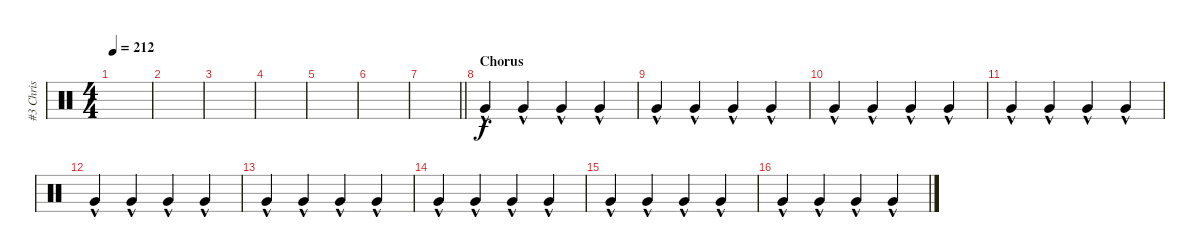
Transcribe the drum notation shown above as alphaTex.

\track ("#3 Chris" "#3 Chris") {instrument percussion}
\staff {score}
\articulation defaults
\ts (4 4)
\tempo 212
\clef neutral
\ks c
|
|
|
|
|
|
\barLineRight lightlight
|
\section ("" "Chorus")
"Very Low Tom (hit)"{hac}.4 "Very Low Tom (hit)"{hac}.4 "Very Low Tom (hit)"{hac}.4 "Very Low Tom (hit)"{hac}.4 |
"Very Low Tom (hit)"{hac}.4 "Very Low Tom (hit)"{hac}.4 "Very Low Tom (hit)"{hac}.4 "Very Low Tom (hit)"{hac}.4 |
"Very Low Tom (hit)"{hac}.4 "Very Low Tom (hit)"{hac}.4 "Very Low Tom (hit)"{hac}.4 "Very Low Tom (hit)"{hac}.4 |
"Very Low Tom (hit)"{hac}.4 "Very Low Tom (hit)"{hac}.4 "Very Low Tom (hit)"{hac}.4 "Very Low Tom (hit)"{hac}.4 |
"Very Low Tom (hit)"{hac}.4 "Very Low Tom (hit)"{hac}.4 "Very Low Tom (hit)"{hac}.4 "Very Low Tom (hit)"{hac}.4 |
"Very Low Tom (hit)"{hac}.4 "Very Low Tom (hit)"{hac}.4 "Very Low Tom (hit)"{hac}.4 "Very Low Tom (hit)"{hac}.4 |
"Very Low Tom (hit)"{hac}.4 "Very Low Tom (hit)"{hac}.4 "Very Low Tom (hit)"{hac}.4 "Very Low Tom (hit)"{hac}.4 |
"Very Low Tom (hit)"{hac}.4 "Very Low Tom (hit)"{hac}.4 "Very Low Tom (hit)"{hac}.4 "Very Low Tom (hit)"{hac}.4 |
"Very Low Tom (hit)"{hac}.4 "Very Low Tom (hit)"{hac}.4 "Very Low Tom (hit)"{hac}.4 "Very Low Tom (hit)"{hac}.4
